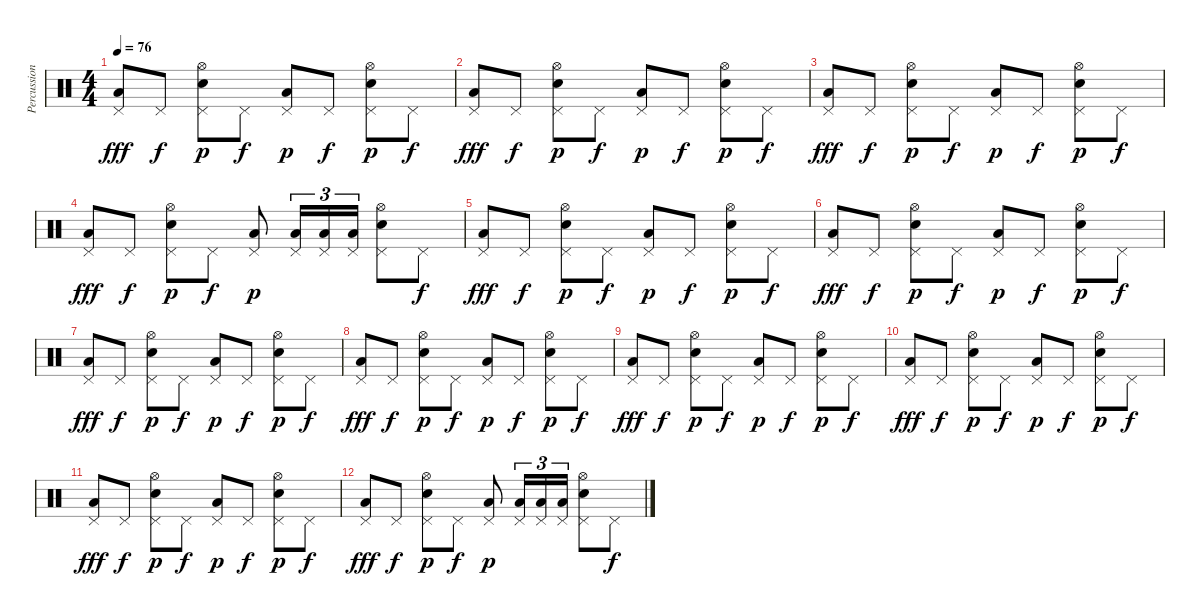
\track ("Percussion" "Percussion") {instrument percussion}
\staff {score}
\articulation defaults
\ts (4 4)
\tempo 76
\clef neutral
\ks c
("Low Floor Tom (hit)" "Pedal Hi-Hat (hit)").8{dy fff} "Pedal Hi-Hat (hit)".8{dy f} ("Electric Snare (hit)" "Pedal Hi-Hat (hit)" "Hi-Hat (open)").8{dy p} "Pedal Hi-Hat (hit)".8{dy f} ("Low Floor Tom (hit)" "Pedal Hi-Hat (hit)").8{dy p} "Pedal Hi-Hat (hit)".8{dy f} ("Electric Snare (hit)" "Pedal Hi-Hat (hit)" "Hi-Hat (open)").8{dy p} "Pedal Hi-Hat (hit)".8{dy f} |
("Low Floor Tom (hit)" "Pedal Hi-Hat (hit)").8{dy fff} "Pedal Hi-Hat (hit)".8{dy f} ("Electric Snare (hit)" "Pedal Hi-Hat (hit)" "Hi-Hat (open)").8{dy p} "Pedal Hi-Hat (hit)".8{dy f} ("Low Floor Tom (hit)" "Pedal Hi-Hat (hit)").8{dy p} "Pedal Hi-Hat (hit)".8{dy f} ("Electric Snare (hit)" "Pedal Hi-Hat (hit)" "Hi-Hat (open)").8{dy p} "Pedal Hi-Hat (hit)".8{dy f} |
("Low Floor Tom (hit)" "Pedal Hi-Hat (hit)").8{dy fff} "Pedal Hi-Hat (hit)".8{dy f} ("Electric Snare (hit)" "Pedal Hi-Hat (hit)" "Hi-Hat (open)").8{dy p} "Pedal Hi-Hat (hit)".8{dy f} ("Low Floor Tom (hit)" "Pedal Hi-Hat (hit)").8{dy p} "Pedal Hi-Hat (hit)".8{dy f} ("Electric Snare (hit)" "Pedal Hi-Hat (hit)" "Hi-Hat (open)").8{dy p} "Pedal Hi-Hat (hit)".8{dy f} |
("Low Floor Tom (hit)" "Pedal Hi-Hat (hit)").8{dy fff} "Pedal Hi-Hat (hit)".8{dy f} ("Electric Snare (hit)" "Pedal Hi-Hat (hit)" "Hi-Hat (open)").8{dy p} "Pedal Hi-Hat (hit)".8{dy f} ("Low Floor Tom (hit)" "Pedal Hi-Hat (hit)").8{dy p} ("Low Floor Tom (hit)" "Pedal Hi-Hat (hit)").16{tu (3 2)} ("Low Floor Tom (hit)" "Pedal Hi-Hat (hit)").16{tu (3 2)} ("Low Floor Tom (hit)" "Pedal Hi-Hat (hit)").16{tu (3 2)} ("Electric Snare (hit)" "Pedal Hi-Hat (hit)" "Hi-Hat (open)").8 "Pedal Hi-Hat (hit)".8{dy f} |
("Low Floor Tom (hit)" "Pedal Hi-Hat (hit)").8{dy fff} "Pedal Hi-Hat (hit)".8{dy f} ("Electric Snare (hit)" "Pedal Hi-Hat (hit)" "Hi-Hat (open)").8{dy p} "Pedal Hi-Hat (hit)".8{dy f} ("Low Floor Tom (hit)" "Pedal Hi-Hat (hit)").8{dy p} "Pedal Hi-Hat (hit)".8{dy f} ("Electric Snare (hit)" "Pedal Hi-Hat (hit)" "Hi-Hat (open)").8{dy p} "Pedal Hi-Hat (hit)".8{dy f} |
("Low Floor Tom (hit)" "Pedal Hi-Hat (hit)").8{dy fff} "Pedal Hi-Hat (hit)".8{dy f} ("Electric Snare (hit)" "Pedal Hi-Hat (hit)" "Hi-Hat (open)").8{dy p} "Pedal Hi-Hat (hit)".8{dy f} ("Low Floor Tom (hit)" "Pedal Hi-Hat (hit)").8{dy p} "Pedal Hi-Hat (hit)".8{dy f} ("Electric Snare (hit)" "Pedal Hi-Hat (hit)" "Hi-Hat (open)").8{dy p} "Pedal Hi-Hat (hit)".8{dy f} |
("Low Floor Tom (hit)" "Pedal Hi-Hat (hit)").8{dy fff} "Pedal Hi-Hat (hit)".8{dy f} ("Electric Snare (hit)" "Pedal Hi-Hat (hit)" "Hi-Hat (open)").8{dy p} "Pedal Hi-Hat (hit)".8{dy f} ("Low Floor Tom (hit)" "Pedal Hi-Hat (hit)").8{dy p} "Pedal Hi-Hat (hit)".8{dy f} ("Electric Snare (hit)" "Pedal Hi-Hat (hit)" "Hi-Hat (open)").8{dy p} "Pedal Hi-Hat (hit)".8{dy f} |
("Low Floor Tom (hit)" "Pedal Hi-Hat (hit)").8{dy fff} "Pedal Hi-Hat (hit)".8{dy f} ("Electric Snare (hit)" "Pedal Hi-Hat (hit)" "Hi-Hat (open)").8{dy p} "Pedal Hi-Hat (hit)".8{dy f} ("Low Floor Tom (hit)" "Pedal Hi-Hat (hit)").8{dy p} "Pedal Hi-Hat (hit)".8{dy f} ("Electric Snare (hit)" "Pedal Hi-Hat (hit)" "Hi-Hat (open)").8{dy p} "Pedal Hi-Hat (hit)".8{dy f} |
("Low Floor Tom (hit)" "Pedal Hi-Hat (hit)").8{dy fff} "Pedal Hi-Hat (hit)".8{dy f} ("Electric Snare (hit)" "Pedal Hi-Hat (hit)" "Hi-Hat (open)").8{dy p} "Pedal Hi-Hat (hit)".8{dy f} ("Low Floor Tom (hit)" "Pedal Hi-Hat (hit)").8{dy p} "Pedal Hi-Hat (hit)".8{dy f} ("Electric Snare (hit)" "Pedal Hi-Hat (hit)" "Hi-Hat (open)").8{dy p} "Pedal Hi-Hat (hit)".8{dy f} |
("Low Floor Tom (hit)" "Pedal Hi-Hat (hit)").8{dy fff} "Pedal Hi-Hat (hit)".8{dy f} ("Electric Snare (hit)" "Pedal Hi-Hat (hit)" "Hi-Hat (open)").8{dy p} "Pedal Hi-Hat (hit)".8{dy f} ("Low Floor Tom (hit)" "Pedal Hi-Hat (hit)").8{dy p} "Pedal Hi-Hat (hit)".8{dy f} ("Electric Snare (hit)" "Pedal Hi-Hat (hit)" "Hi-Hat (open)").8{dy p} "Pedal Hi-Hat (hit)".8{dy f} |
("Low Floor Tom (hit)" "Pedal Hi-Hat (hit)").8{dy fff} "Pedal Hi-Hat (hit)".8{dy f} ("Electric Snare (hit)" "Pedal Hi-Hat (hit)" "Hi-Hat (open)").8{dy p} "Pedal Hi-Hat (hit)".8{dy f} ("Low Floor Tom (hit)" "Pedal Hi-Hat (hit)").8{dy p} "Pedal Hi-Hat (hit)".8{dy f} ("Electric Snare (hit)" "Pedal Hi-Hat (hit)" "Hi-Hat (open)").8{dy p} "Pedal Hi-Hat (hit)".8{dy f} |
("Low Floor Tom (hit)" "Pedal Hi-Hat (hit)").8{dy fff} "Pedal Hi-Hat (hit)".8{dy f} ("Electric Snare (hit)" "Pedal Hi-Hat (hit)" "Hi-Hat (open)").8{dy p} "Pedal Hi-Hat (hit)".8{dy f} ("Low Floor Tom (hit)" "Pedal Hi-Hat (hit)").8{dy p} ("Low Floor Tom (hit)" "Pedal Hi-Hat (hit)").16{tu (3 2)} ("Low Floor Tom (hit)" "Pedal Hi-Hat (hit)").16{tu (3 2)} ("Low Floor Tom (hit)" "Pedal Hi-Hat (hit)").16{tu (3 2)} ("Electric Snare (hit)" "Pedal Hi-Hat (hit)" "Hi-Hat (open)").8 "Pedal Hi-Hat (hit)".8{dy f}
